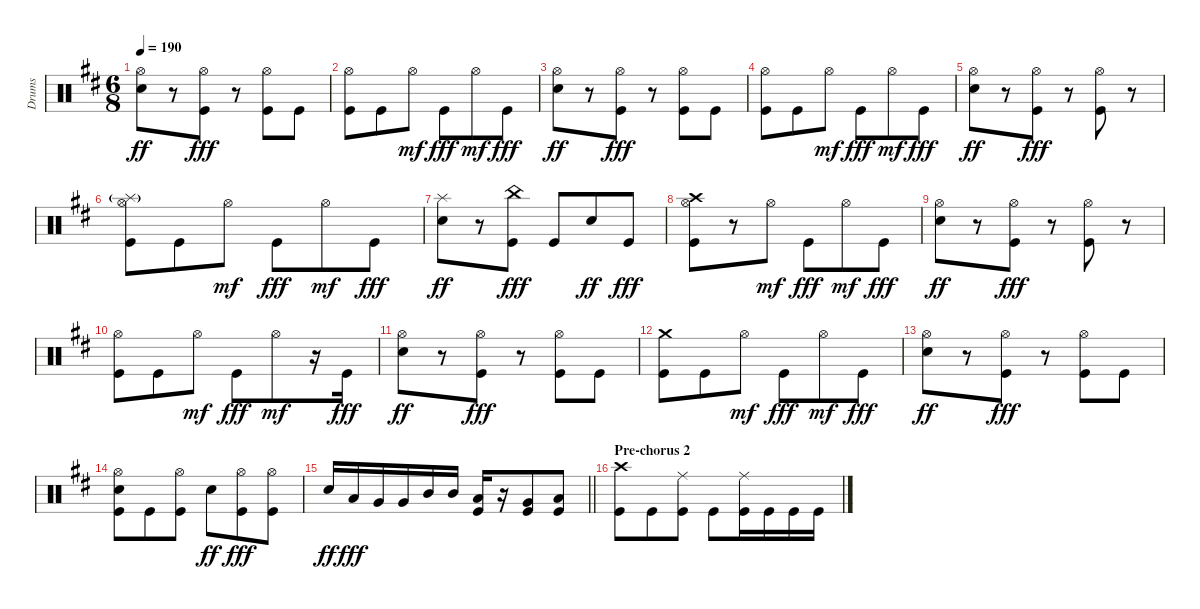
\track ("Drums" "Drums") {instrument percussion}
\staff {score}
\articulation defaults
\ts (6 8)
\tempo 190
\clef neutral
\ks bminor
("Hi-Hat (open)" "Snare (hit) 2").8{dy ff} r.8 ("Hi-Hat (open)" "Kick (hit)").8{dy fff} r.8 ("Hi-Hat (open)" "Kick (hit)").8 "Kick (hit)".8 |
("Hi-Hat (open)" "Kick (hit)").8 "Kick (hit)".8 "Hi-Hat (open)".8{dy mf} "Kick (hit)".8{dy fff} "Hi-Hat (open)".8{dy mf} "Kick (hit)".8{dy fff} |
("Hi-Hat (open)" "Snare (hit) 2").8{dy ff} r.8 ("Hi-Hat (open)" "Kick (hit)").8{dy fff} r.8 ("Hi-Hat (open)" "Kick (hit)").8 "Kick (hit)".8 |
("Hi-Hat (open)" "Kick (hit)").8 "Kick (hit)".8 "Hi-Hat (open)".8{dy mf} "Kick (hit)".8{dy fff} "Hi-Hat (open)".8{dy mf} "Kick (hit)".8{dy fff} |
("Hi-Hat (open)" "Snare (hit) 2").8{dy ff} r.8 ("Hi-Hat (open)" "Kick (hit)").8{dy fff} r.8 ("Hi-Hat (open)" "Kick (hit)").8 r.8 |
("Splash (hit)"{g} "Hi-Hat (open)" "Kick (hit)").8 "Kick (hit)".8 "Hi-Hat (open)".8{dy mf} "Kick (hit)".8{dy fff} "Hi-Hat (open)".8{dy mf} "Kick (hit)".8{dy fff} |
("Splash (hit)" "Snare (hit) 2").8{dy ff} r.8 ("China (hit)" "Kick (hit)").8{dy fff} "Kick (hit)".8 "Snare (hit) 2".8{dy ff} "Kick (hit)".8{dy fff} |
("Crash high (hit)" "Hi-Hat (open)" "Kick (hit)").8 r.8 "Hi-Hat (open)".8{dy mf} "Kick (hit)".8{dy fff} "Hi-Hat (open)".8{dy mf} "Kick (hit)".8{dy fff} |
("Hi-Hat (open)" "Snare (hit) 2").8{dy ff} r.8 ("Hi-Hat (open)" "Kick (hit)").8{dy fff} r.8 ("Hi-Hat (open)" "Kick (hit)").8 r.8 |
("Hi-Hat (open)" "Kick (hit)").8 "Kick (hit)".8 "Hi-Hat (open)".8{dy mf} "Kick (hit)".8{dy fff} "Hi-Hat (open)".8{dy mf} r.16 "Kick (hit)".16{dy fff} |
("Hi-Hat (open)" "Snare (hit) 2").8{dy ff} r.8 ("Hi-Hat (open)" "Kick (hit)").8{dy fff} r.8 ("Hi-Hat (open)" "Kick (hit)").8 "Kick (hit)".8 |
("Crash medium (hit)" "Kick (hit)").8 "Kick (hit)".8 "Hi-Hat (open)".8{dy mf} "Kick (hit)".8{dy fff} "Hi-Hat (open)".8{dy mf} "Kick (hit)".8{dy fff} |
("Hi-Hat (open)" "Snare (hit) 2").8{dy ff} r.8 ("Hi-Hat (open)" "Kick (hit)").8{dy fff} r.8 ("Hi-Hat (open)" "Kick (hit)").8 "Kick (hit)".8 |
("Hi-Hat (open)" "Snare (hit) 2" "Kick (hit)").8 "Kick (hit)".8 ("Hi-Hat (open)" "Kick (hit)").8 "Snare (hit) 2".8{dy ff} ("Hi-Hat (open)" "Kick (hit)").8{dy fff} ("Hi-Hat (open)" "Kick (hit)").8 |
\barLineRight lightlight "Snare (hit) 2".16{dy ff} "Low Tom (hit)".16{dy fff} "Very Low Tom (hit)".16 "Very Low Tom (hit)".16 "Mid Tom (hit)".16 "Mid Tom (hit)".16
("Low Tom (hit)" "Kick (hit)").16 r.16 ("Very Low Tom (hit)" "Kick (hit)").8 ("Low Floor Tom (hit)" "Kick (hit)").8 |
\section ("" "Pre-chorus 2")
("Crash high (hit)" "Kick (hit)").8 "Kick (hit)".8 ("Ride (middle)" "Kick (hit)").8 "Kick (hit)".8 ("Ride (middle)" "Kick (hit)").16 "Kick (hit)".16 "Kick (hit)".16 "Kick (hit)".16
